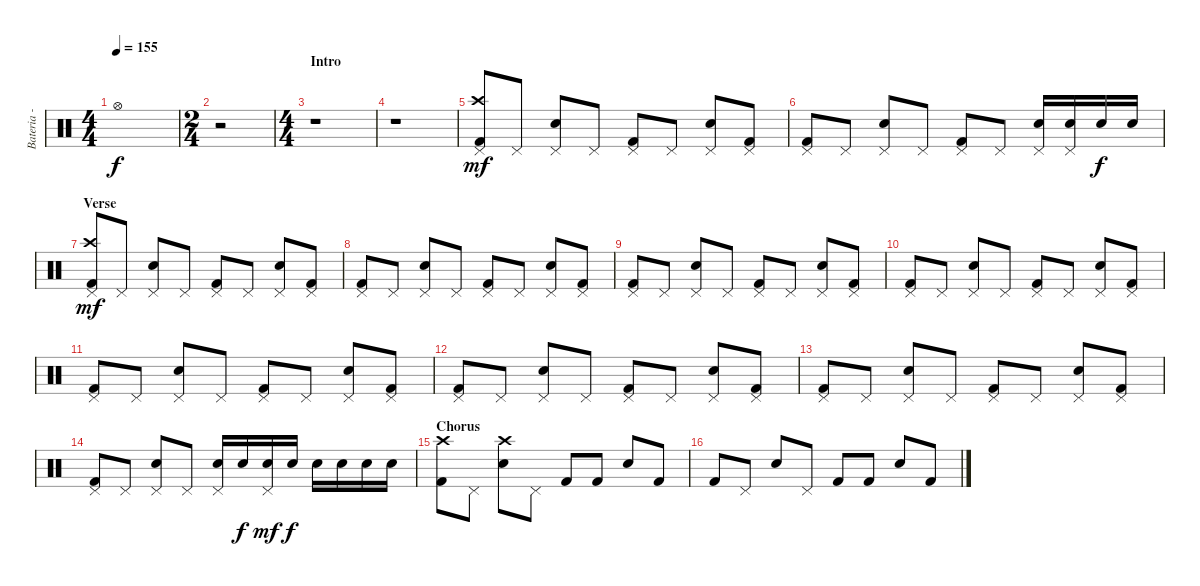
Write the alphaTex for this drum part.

\track ("Bateria - Larzon" "Bateria - ") {instrument percussion}
\staff {score}
\articulation defaults
\ts (4 4)
\tempo 155
\clef neutral
\ks c "Hi-Hat (open)".1{dy f}
|
\ts (2 4)
r.2 |
\ts (4 4)
\section ("" "Intro")
r.1 |
r.1 |
("Kick (hit) 2" "Crash high (hit)" "Pedal Hi-Hat (hit)").8{dy mf} "Pedal Hi-Hat (hit)".8 ("Electric Snare (hit)" "Pedal Hi-Hat (hit)").8 "Pedal Hi-Hat (hit)".8 ("Kick (hit) 2" "Pedal Hi-Hat (hit)").8 "Pedal Hi-Hat (hit)".8 ("Electric Snare (hit)" "Pedal Hi-Hat (hit)").8 ("Kick (hit) 2" "Pedal Hi-Hat (hit)").8 |
("Kick (hit) 2" "Pedal Hi-Hat (hit)").8 "Pedal Hi-Hat (hit)".8 ("Electric Snare (hit)" "Pedal Hi-Hat (hit)").8 "Pedal Hi-Hat (hit)".8 ("Kick (hit) 2" "Pedal Hi-Hat (hit)").8 "Pedal Hi-Hat (hit)".8 ("Electric Snare (hit)" "Pedal Hi-Hat (hit)").16 ("Electric Snare (hit)" "Pedal Hi-Hat (hit)").16 "Electric Snare (hit)".16{dy f} "Electric Snare (hit)".16 |
\section ("" "Verse")
("Kick (hit) 2" "Pedal Hi-Hat (hit)" "Crash high (hit)").8{dy mf} "Pedal Hi-Hat (hit)".8 ("Electric Snare (hit)" "Pedal Hi-Hat (hit)").8 "Pedal Hi-Hat (hit)".8 ("Kick (hit) 2" "Pedal Hi-Hat (hit)").8 "Pedal Hi-Hat (hit)".8 ("Electric Snare (hit)" "Pedal Hi-Hat (hit)").8 ("Kick (hit) 2" "Pedal Hi-Hat (hit)").8 |
("Kick (hit) 2" "Pedal Hi-Hat (hit)").8 "Pedal Hi-Hat (hit)".8 ("Electric Snare (hit)" "Pedal Hi-Hat (hit)").8 "Pedal Hi-Hat (hit)".8 ("Kick (hit) 2" "Pedal Hi-Hat (hit)").8 "Pedal Hi-Hat (hit)".8 ("Electric Snare (hit)" "Pedal Hi-Hat (hit)").8 ("Kick (hit) 2" "Pedal Hi-Hat (hit)").8 |
("Kick (hit) 2" "Pedal Hi-Hat (hit)").8 "Pedal Hi-Hat (hit)".8 ("Electric Snare (hit)" "Pedal Hi-Hat (hit)").8 "Pedal Hi-Hat (hit)".8 ("Kick (hit) 2" "Pedal Hi-Hat (hit)").8 "Pedal Hi-Hat (hit)".8 ("Electric Snare (hit)" "Pedal Hi-Hat (hit)").8 ("Kick (hit) 2" "Pedal Hi-Hat (hit)").8 |
("Kick (hit) 2" "Pedal Hi-Hat (hit)").8 "Pedal Hi-Hat (hit)".8 ("Electric Snare (hit)" "Pedal Hi-Hat (hit)").8 "Pedal Hi-Hat (hit)".8 ("Kick (hit) 2" "Pedal Hi-Hat (hit)").8 "Pedal Hi-Hat (hit)".8 ("Electric Snare (hit)" "Pedal Hi-Hat (hit)").8 ("Kick (hit) 2" "Pedal Hi-Hat (hit)").8 |
("Kick (hit) 2" "Pedal Hi-Hat (hit)").8 "Pedal Hi-Hat (hit)".8 ("Electric Snare (hit)" "Pedal Hi-Hat (hit)").8 "Pedal Hi-Hat (hit)".8 ("Kick (hit) 2" "Pedal Hi-Hat (hit)").8 "Pedal Hi-Hat (hit)".8 ("Electric Snare (hit)" "Pedal Hi-Hat (hit)").8 ("Kick (hit) 2" "Pedal Hi-Hat (hit)").8 |
("Kick (hit) 2" "Pedal Hi-Hat (hit)").8 "Pedal Hi-Hat (hit)".8 ("Electric Snare (hit)" "Pedal Hi-Hat (hit)").8 "Pedal Hi-Hat (hit)".8 ("Kick (hit) 2" "Pedal Hi-Hat (hit)").8 "Pedal Hi-Hat (hit)".8 ("Electric Snare (hit)" "Pedal Hi-Hat (hit)").8 ("Kick (hit) 2" "Pedal Hi-Hat (hit)").8 |
("Kick (hit) 2" "Pedal Hi-Hat (hit)").8 "Pedal Hi-Hat (hit)".8 ("Electric Snare (hit)" "Pedal Hi-Hat (hit)").8 "Pedal Hi-Hat (hit)".8 ("Kick (hit) 2" "Pedal Hi-Hat (hit)").8 "Pedal Hi-Hat (hit)".8 ("Electric Snare (hit)" "Pedal Hi-Hat (hit)").8 ("Kick (hit) 2" "Pedal Hi-Hat (hit)").8 |
("Kick (hit) 2" "Pedal Hi-Hat (hit)").8 "Pedal Hi-Hat (hit)".8 ("Electric Snare (hit)" "Pedal Hi-Hat (hit)").8 "Pedal Hi-Hat (hit)".8 ("Snare (hit) 2" "Pedal Hi-Hat (hit)").16 "Snare (hit) 2".16{dy f} ("Snare (hit) 2" "Pedal Hi-Hat (hit)").16{dy mf} "Snare (hit) 2".16{dy f} "Electric Snare (hit)".16 "Electric Snare (hit)".16 "Electric Snare (hit)".16 "Electric Snare (hit)".16 |
\section ("" "Chorus")
("Kick (hit) 2" "Crash high (hit)").8 "Pedal Hi-Hat (hit)".8 ("Snare (hit) 2" "Crash high (hit)").8 "Pedal Hi-Hat (hit)".8 "Kick (hit) 2".8 "Kick (hit) 2".8 "Snare (hit) 2".8 "Kick (hit) 2".8 |
"Kick (hit) 2".8 "Pedal Hi-Hat (hit)".8 "Snare (hit) 2".8 "Pedal Hi-Hat (hit)".8 "Kick (hit) 2".8 "Kick (hit) 2".8 "Snare (hit) 2".8 "Kick (hit) 2".8
